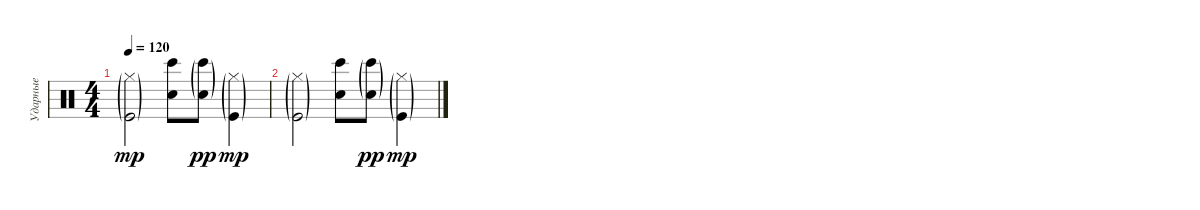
\track ("Ударные" "Ударные") {instrument percussion}
\staff {score}
\articulation defaults
\ts (4 4)
\tempo 120
\clef neutral
\ks c
("Kick (hit)"{g} "Hi-Hat (closed)"{g}).2{dy mp} ("Bongo High (hit)" "Hand Clap (hit)").8 ("Bongo High (hit)"{g} "Hand Clap (hit)"{g}).8{dy pp} ("Kick (hit)"{g} "Hi-Hat (closed)"{g}).4{dy mp} |
("Kick (hit)"{g} "Hi-Hat (closed)"{g}).2 ("Bongo High (hit)" "Hand Clap (hit)").8 ("Bongo High (hit)"{g} "Hand Clap (hit)"{g}).8{dy pp} ("Kick (hit)"{g} "Hi-Hat (closed)"{g}).4{dy mp}
